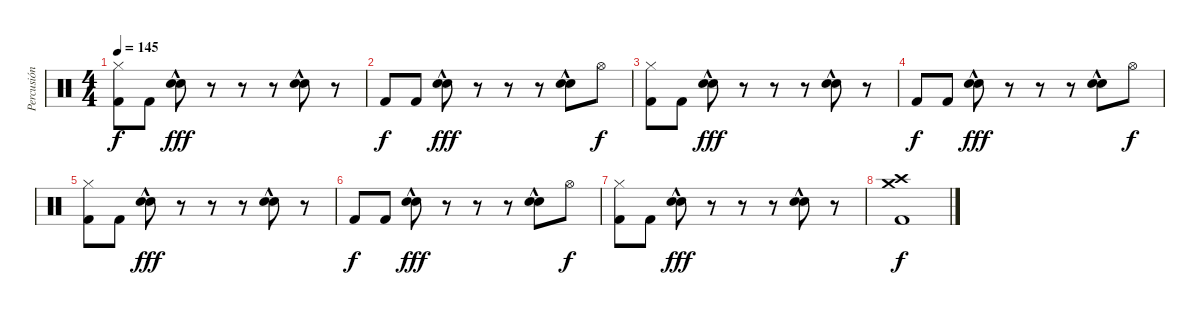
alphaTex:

\track ("Percusión" "Percusión") {instrument percussion}
\staff {score}
\articulation defaults
\ts (4 4)
\tempo 145
\clef neutral
\ks c
("Hi-Hat (closed)" "Kick (hit) 2").8{dy f} "Kick (hit) 2".8 ("Electric Snare (hit)"{hac} "Electric Snare (hit)"{hac}).8{dy fff} r.8 r.8 r.8 ("Electric Snare (hit)"{hac} "Electric Snare (hit)"{hac}).8 r.8 |
"Kick (hit) 2".8{dy f} "Kick (hit) 2".8 ("Electric Snare (hit)"{hac} "Electric Snare (hit)"{hac}).8{dy fff} r.8 r.8 r.8 ("Electric Snare (hit)"{hac} "Electric Snare (hit)"{hac}).8 "Hi-Hat (open)".8{dy f} |
("Hi-Hat (closed)" "Kick (hit) 2").8 "Kick (hit) 2".8 ("Electric Snare (hit)"{hac} "Electric Snare (hit)"{hac}).8{dy fff} r.8 r.8 r.8 ("Electric Snare (hit)"{hac} "Electric Snare (hit)"{hac}).8 r.8 |
"Kick (hit) 2".8{dy f} "Kick (hit) 2".8 ("Electric Snare (hit)"{hac} "Electric Snare (hit)"{hac}).8{dy fff} r.8 r.8 r.8 ("Electric Snare (hit)"{hac} "Electric Snare (hit)"{hac}).8 "Hi-Hat (open)".8{dy f} |
("Hi-Hat (closed)" "Kick (hit) 2").8 "Kick (hit) 2".8 ("Electric Snare (hit)"{hac} "Electric Snare (hit)"{hac}).8{dy fff} r.8 r.8 r.8 ("Electric Snare (hit)"{hac} "Electric Snare (hit)"{hac}).8 r.8 |
"Kick (hit) 2".8{dy f} "Kick (hit) 2".8 ("Electric Snare (hit)"{hac} "Electric Snare (hit)"{hac}).8{dy fff} r.8 r.8 r.8 ("Electric Snare (hit)"{hac} "Electric Snare (hit)"{hac}).8 "Hi-Hat (open)".8{dy f} |
("Hi-Hat (closed)" "Kick (hit) 2").8 "Kick (hit) 2".8 ("Electric Snare (hit)"{hac} "Electric Snare (hit)"{hac}).8{dy fff} r.8 r.8 r.8 ("Electric Snare (hit)"{hac} "Electric Snare (hit)"{hac}).8 r.8 |
("Crash medium (hit)" "Crash high (hit)" "Kick (hit) 2").1{dy f}
